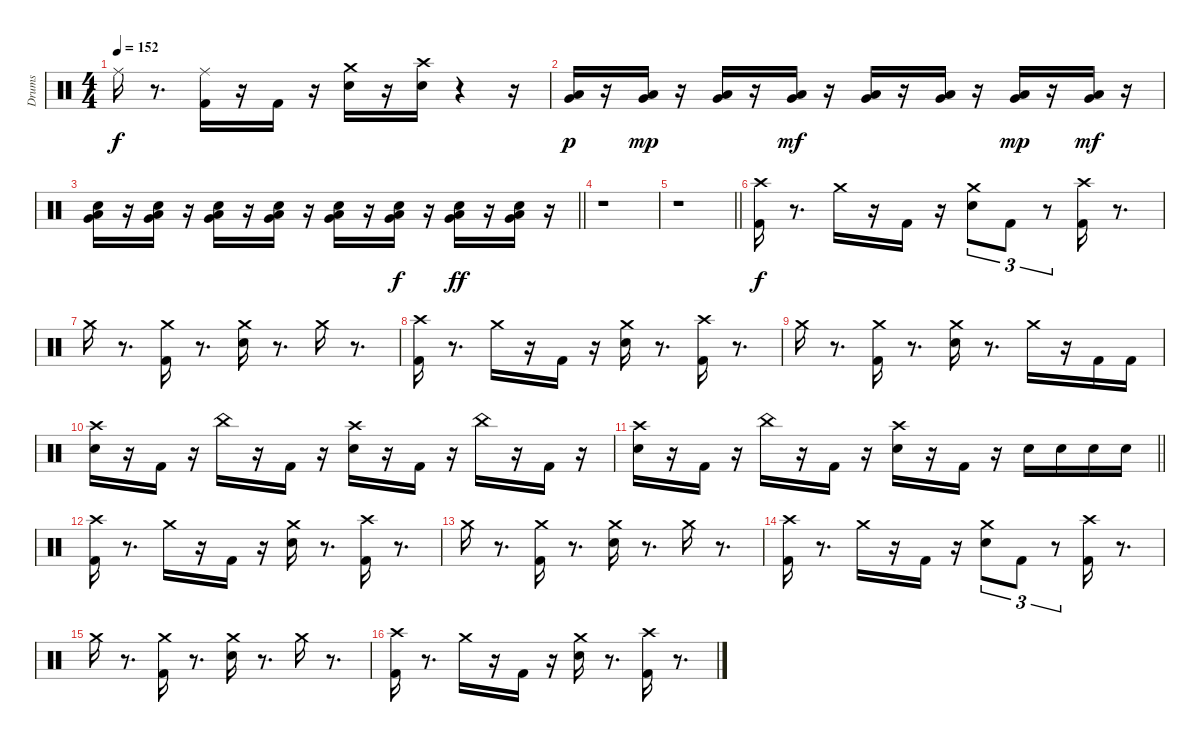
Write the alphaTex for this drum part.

\track ("Drums" "Drums") {instrument percussion}
\staff {score}
\articulation defaults
\ts (4 4)
\tempo 152
\clef neutral
\ks c "Ride (middle)".16{dy f}
r.8{d} ("Kick (hit) 2" "Ride (middle)").16 r.16 "Kick (hit) 2".16 r.16 ("Snare (hit) 2" "Crash medium (hit)").16 r.16 ("Snare (hit) 2" "Crash high (hit)").16 r.4 r.16 |
("Very Low Tom (hit)" "Low Tom (hit)").16{dy p} r.16 ("Very Low Tom (hit)" "Low Tom (hit)").16{dy mp} r.16 ("Very Low Tom (hit)" "Low Tom (hit)").16 r.16 ("Very Low Tom (hit)" "Low Tom (hit)").16{dy mf} r.16 ("Very Low Tom (hit)" "Low Tom (hit)").16 r.16 ("Very Low Tom (hit)" "Low Tom (hit)").16 r.16 ("Very Low Tom (hit)" "Low Tom (hit)").16{dy mp} r.16 ("Very Low Tom (hit)" "Low Tom (hit)").16{dy mf} r.16 |
\barLineRight lightlight
("Snare (hit) 2" "Very Low Tom (hit)" "Low Tom (hit)").16 r.16 ("Snare (hit) 2" "Very Low Tom (hit)" "Low Tom (hit)").16 r.16 ("Snare (hit) 2" "Very Low Tom (hit)" "Low Tom (hit)").16 r.16 ("Snare (hit) 2" "Very Low Tom (hit)" "Low Tom (hit)").16 r.16 ("Snare (hit) 2" "Very Low Tom (hit)" "Low Tom (hit)").16 r.16 ("Snare (hit) 2" "Very Low Tom (hit)" "Low Tom (hit)").16{dy f} r.16 ("Snare (hit) 2" "Very Low Tom (hit)" "Low Tom (hit)").16{dy ff} r.16 ("Snare (hit) 2" "Very Low Tom (hit)" "Low Tom (hit)").16 r.16 |
\section ("" " ")
r.1 |
\barLineRight lightlight
r.1 |
\section ("" " ")
("Kick (hit) 2" "Crash high (hit)").16{dy f} r.8{d} "Crash medium (hit)".16 r.16 "Kick (hit) 2".16 r.16 ("Snare (hit) 2" "Crash medium (hit)").8{tu (3 2)} "Kick (hit) 2".8{tu (3 2)} r.8{tu (3 2)} ("Kick (hit) 2" "Crash high (hit)").16 r.8{d} |
"Crash medium (hit)".16 r.8{d} ("Kick (hit) 2" "Crash medium (hit)").16 r.8{d} ("Snare (hit) 2" "Crash medium (hit)").16 r.8{d} "Crash medium (hit)".16 r.8{d} |
("Kick (hit) 2" "Crash high (hit)").16 r.8{d} "Crash medium (hit)".16 r.16 "Kick (hit) 2".16 r.16 ("Snare (hit) 2" "Crash medium (hit)").16 r.8{d} ("Kick (hit) 2" "Crash high (hit)").16 r.8{d} |
"Crash medium (hit)".16 r.8{d} ("Kick (hit) 2" "Crash medium (hit)").16 r.8{d} ("Snare (hit) 2" "Crash medium (hit)").16 r.8{d} "Crash medium (hit)".16 r.16 "Kick (hit) 2".16 "Kick (hit) 2".16 |
("Snare (hit) 2" "Crash high (hit)").16 r.16 "Kick (hit) 2".16 r.16 "China (hit)".16 r.16 "Kick (hit) 2".16 r.16 ("Snare (hit) 2" "Crash high (hit)").16 r.16 "Kick (hit) 2".16 r.16 "China (hit)".16 r.16 "Kick (hit) 2".16 r.16 |
\barLineRight lightlight
("Snare (hit) 2" "Crash high (hit)").16 r.16 "Kick (hit) 2".16 r.16 "China (hit)".16 r.16 "Kick (hit) 2".16 r.16 ("Snare (hit) 2" "Crash high (hit)").16 r.16 "Kick (hit) 2".16 r.16 "Snare (hit) 2".16 "Snare (hit) 2".16 "Snare (hit) 2".16 "Snare (hit) 2".16 |
("Kick (hit) 2" "Crash high (hit)").16 r.8{d} "Crash medium (hit)".16 r.16 "Kick (hit) 2".16 r.16 ("Snare (hit) 2" "Crash medium (hit)").16 r.8{d} ("Kick (hit) 2" "Crash high (hit)").16 r.8{d} |
"Crash medium (hit)".16 r.8{d} ("Kick (hit) 2" "Crash medium (hit)").16 r.8{d} ("Snare (hit) 2" "Crash medium (hit)").16 r.8{d} "Crash medium (hit)".16 r.8{d} |
("Kick (hit) 2" "Crash high (hit)").16 r.8{d} "Crash medium (hit)".16 r.16 "Kick (hit) 2".16 r.16 ("Snare (hit) 2" "Crash medium (hit)").8{tu (3 2)} "Kick (hit) 2".8{tu (3 2)} r.8{tu (3 2)} ("Kick (hit) 2" "Crash high (hit)").16 r.8{d} |
"Crash medium (hit)".16 r.8{d} ("Kick (hit) 2" "Crash medium (hit)").16 r.8{d} ("Snare (hit) 2" "Crash medium (hit)").16 r.8{d} "Crash medium (hit)".16 r.8{d} |
("Kick (hit) 2" "Crash high (hit)").16 r.8{d} "Crash medium (hit)".16 r.16 "Kick (hit) 2".16 r.16 ("Snare (hit) 2" "Crash medium (hit)").16 r.8{d} ("Kick (hit) 2" "Crash high (hit)").16 r.8{d}
